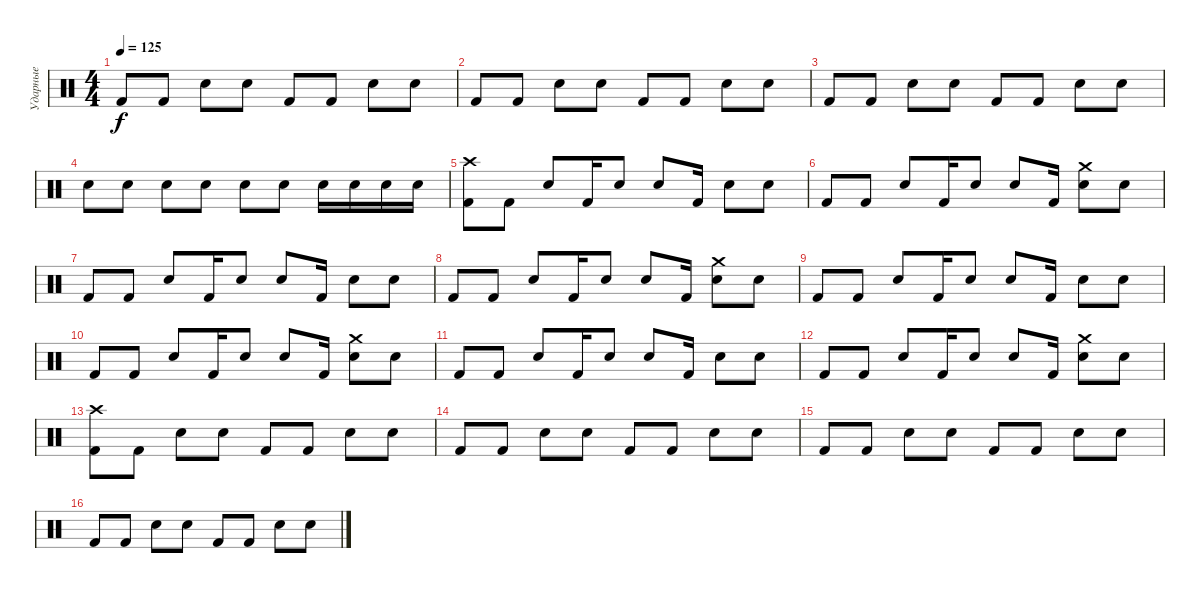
\track ("Ударные" "Ударные") {instrument percussion}
\staff {score}
\articulation defaults
\ts (4 4)
\tempo 125
\clef neutral
\ks c "Kick (hit) 2".8{dy f} "Kick (hit) 2".8 "Electric Snare (hit)".8 "Snare (hit)".8 "Kick (hit) 2".8 "Kick (hit) 2".8 "Electric Snare (hit)".8 "Snare (hit)".8
|
"Kick (hit) 2".8 "Kick (hit) 2".8 "Electric Snare (hit)".8 "Snare (hit)".8 "Kick (hit) 2".8 "Kick (hit) 2".8 "Electric Snare (hit)".8 "Snare (hit)".8 |
"Kick (hit) 2".8 "Kick (hit) 2".8 "Electric Snare (hit)".8 "Snare (hit)".8 "Kick (hit) 2".8 "Kick (hit) 2".8 "Electric Snare (hit)".8 "Snare (hit)".8 |
"Electric Snare (hit)".8 "Electric Snare (hit)".8 "Electric Snare (hit)".8 "Electric Snare (hit)".8 "Electric Snare (hit)".8 "Electric Snare (hit)".8 "Electric Snare (hit)".16 "Electric Snare (hit)".16 "Electric Snare (hit)".16 "Electric Snare (hit)".16 |
("Crash high (hit)" "Kick (hit) 2").8 "Kick (hit) 2".8 "Snare (hit) 2".8 "Kick (hit) 2".16 "Snare (hit) 2".8 "Snare (hit) 2".8 "Kick (hit) 2".16 "Snare (hit) 2".8 "Snare (hit)".8 |
"Kick (hit) 2".8 "Kick (hit) 2".8 "Snare (hit) 2".8 "Kick (hit) 2".16 "Snare (hit) 2".8 "Snare (hit) 2".8 "Kick (hit) 2".16 ("Crash medium (hit)" "Snare (hit) 2").8 "Snare (hit)".8 |
"Kick (hit) 2".8 "Kick (hit) 2".8 "Snare (hit) 2".8 "Kick (hit) 2".16 "Snare (hit) 2".8 "Snare (hit) 2".8 "Kick (hit) 2".16 "Snare (hit) 2".8 "Snare (hit)".8 |
"Kick (hit) 2".8 "Kick (hit) 2".8 "Snare (hit) 2".8 "Kick (hit) 2".16 "Snare (hit) 2".8 "Snare (hit) 2".8 "Kick (hit) 2".16 ("Crash medium (hit)" "Snare (hit) 2").8 "Snare (hit)".8 |
"Kick (hit) 2".8 "Kick (hit) 2".8 "Snare (hit) 2".8 "Kick (hit) 2".16 "Snare (hit) 2".8 "Snare (hit) 2".8 "Kick (hit) 2".16 "Snare (hit) 2".8 "Snare (hit)".8 |
"Kick (hit) 2".8 "Kick (hit) 2".8 "Snare (hit) 2".8 "Kick (hit) 2".16 "Snare (hit) 2".8 "Snare (hit) 2".8 "Kick (hit) 2".16 ("Crash medium (hit)" "Snare (hit) 2").8 "Snare (hit)".8 |
"Kick (hit) 2".8 "Kick (hit) 2".8 "Snare (hit) 2".8 "Kick (hit) 2".16 "Snare (hit) 2".8 "Snare (hit) 2".8 "Kick (hit) 2".16 "Snare (hit) 2".8 "Snare (hit)".8 |
"Kick (hit) 2".8 "Kick (hit) 2".8 "Snare (hit) 2".8 "Kick (hit) 2".16 "Snare (hit) 2".8 "Snare (hit) 2".8 "Kick (hit) 2".16 ("Crash medium (hit)" "Snare (hit) 2").8 "Snare (hit)".8 |
("Crash high (hit)" "Kick (hit) 2").8 "Kick (hit) 2".8 "Snare (hit) 2".8 "Snare (hit)".8 "Kick (hit) 2".8 "Kick (hit) 2".8 "Snare (hit) 2".8 "Snare (hit)".8 |
"Kick (hit) 2".8 "Kick (hit) 2".8 "Snare (hit) 2".8 "Snare (hit)".8 "Kick (hit) 2".8 "Kick (hit) 2".8 "Snare (hit) 2".8 "Snare (hit)".8 |
"Kick (hit) 2".8 "Kick (hit) 2".8 "Snare (hit) 2".8 "Snare (hit)".8 "Kick (hit) 2".8 "Kick (hit) 2".8 "Snare (hit) 2".8 "Snare (hit)".8 |
"Kick (hit) 2".8 "Kick (hit) 2".8 "Snare (hit) 2".8 "Snare (hit)".8 "Kick (hit) 2".8 "Kick (hit) 2".8 "Snare (hit) 2".8 "Snare (hit)".8
